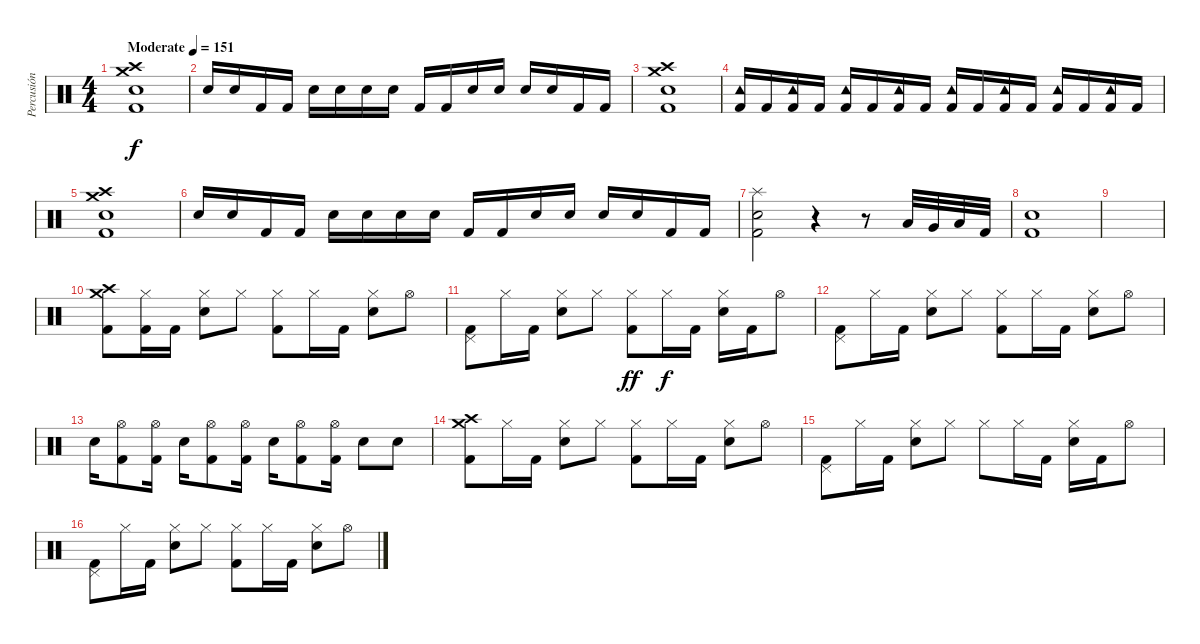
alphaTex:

\track ("Percusión" "Percusión") {instrument percussion}
\staff {score}
\articulation defaults
\ts (4 4)
\tempo (151 "Moderate")
\clef neutral
\ks c
("Crash high (hit)" "Crash medium (hit)" "Electric Snare (hit)" "Kick (hit) 2").1{dy f} |
"Electric Snare (hit)".16 "Electric Snare (hit)".16 "Kick (hit) 2".16 "Kick (hit) 2".16 "Electric Snare (hit)".16 "Electric Snare (hit)".16 "Electric Snare (hit)".16 "Electric Snare (hit)".16 "Kick (hit) 2".16 "Kick (hit) 2".16 "Electric Snare (hit)".16 "Electric Snare (hit)".16 "Electric Snare (hit)".16 "Electric Snare (hit)".16 "Kick (hit) 2".16 "Kick (hit) 2".16 |
("Crash high (hit)" "Crash medium (hit)" "Electric Snare (hit)" "Kick (hit) 2").1 |
("Tambourine (hit)" "Kick (hit) 2").16 "Kick (hit) 2".16 ("Tambourine (hit)" "Kick (hit) 2").16 "Kick (hit) 2".16 ("Tambourine (hit)" "Kick (hit) 2").16 "Kick (hit) 2".16 ("Tambourine (hit)" "Kick (hit) 2").16 "Kick (hit) 2".16 ("Tambourine (hit)" "Kick (hit) 2").16 "Kick (hit) 2".16 ("Tambourine (hit)" "Kick (hit) 2").16 "Kick (hit) 2".16 ("Tambourine (hit)" "Kick (hit) 2").16 "Kick (hit) 2".16 ("Tambourine (hit)" "Kick (hit) 2").16 "Kick (hit) 2".16 |
("Crash high (hit)" "Crash medium (hit)" "Electric Snare (hit)" "Kick (hit) 2").1 |
"Electric Snare (hit)".16 "Electric Snare (hit)".16 "Kick (hit) 2".16 "Kick (hit) 2".16 "Electric Snare (hit)".16 "Electric Snare (hit)".16 "Electric Snare (hit)".16 "Electric Snare (hit)".16 "Kick (hit) 2".16 "Kick (hit) 2".16 "Electric Snare (hit)".16 "Electric Snare (hit)".16 "Electric Snare (hit)".16 "Electric Snare (hit)".16 "Kick (hit) 2".16 "Kick (hit) 2".16 |
("Splash (hit)" "Electric Snare (hit)" "Kick (hit) 2").2 r.4 r.8 "Low Tom (hit)".32 "Very Low Tom (hit)".32 "Low Floor Tom (hit)".32 "Kick (hit) 2".32 |
("Electric Snare (hit)" "Kick (hit) 2").1 |
|
("Crash high (hit)" "Crash medium (hit)" "Kick (hit) 2").8 ("Hi-Hat (closed)" "Kick (hit) 2").16 "Kick (hit) 2".16 ("Hi-Hat (closed)" "Electric Snare (hit)").8 "Hi-Hat (closed)".8 ("Hi-Hat (closed)" "Kick (hit) 2").8 "Hi-Hat (closed)".16 "Kick (hit) 2".16 ("Hi-Hat (closed)" "Electric Snare (hit)").8 "Hi-Hat (open)".8 |
("Pedal Hi-Hat (hit)" "Kick (hit) 2").8 "Hi-Hat (closed)".16 "Kick (hit) 2".16 ("Hi-Hat (closed)" "Electric Snare (hit)").8 "Hi-Hat (closed)".8 ("Hi-Hat (closed)" "Kick (hit) 2").8{dy ff} "Hi-Hat (closed)".16{dy f} "Kick (hit) 2".16 ("Hi-Hat (closed)" "Electric Snare (hit)").16 "Kick (hit) 2".16 "Hi-Hat (open)".8 |
("Pedal Hi-Hat (hit)" "Kick (hit) 2").8 "Hi-Hat (closed)".16 "Kick (hit) 2".16 ("Hi-Hat (closed)" "Electric Snare (hit)").8 "Hi-Hat (closed)".8 ("Hi-Hat (closed)" "Kick (hit) 2").8 "Hi-Hat (closed)".16 "Kick (hit) 2".16 ("Hi-Hat (closed)" "Electric Snare (hit)").8 "Hi-Hat (open)".8 |
"Electric Snare (hit)".16 ("Hi-Hat (open)" "Kick (hit) 2").8 ("Hi-Hat (open)" "Kick (hit) 2").16 "Electric Snare (hit)".16 ("Hi-Hat (open)" "Kick (hit) 2").8 ("Hi-Hat (open)" "Kick (hit) 2").16 "Electric Snare (hit)".16 ("Hi-Hat (open)" "Kick (hit) 2").8 ("Hi-Hat (open)" "Kick (hit) 2").16 "Electric Snare (hit)".8 "Electric Snare (hit)".8 |
("Crash high (hit)" "Crash medium (hit)" "Kick (hit) 2").8 "Hi-Hat (closed)".16 "Kick (hit) 2".16 ("Hi-Hat (closed)" "Electric Snare (hit)").8 "Hi-Hat (closed)".8 ("Hi-Hat (closed)" "Kick (hit) 2").8 "Hi-Hat (closed)".16 "Kick (hit) 2".16 ("Hi-Hat (closed)" "Electric Snare (hit)").8 "Hi-Hat (open)".8 |
("Pedal Hi-Hat (hit)" "Kick (hit) 2").8 "Hi-Hat (closed)".16 "Kick (hit) 2".16 ("Hi-Hat (closed)" "Electric Snare (hit)").8 "Hi-Hat (closed)".8 "Hi-Hat (closed)".8 "Hi-Hat (closed)".16 "Kick (hit) 2".16 ("Hi-Hat (closed)" "Electric Snare (hit)").16 "Kick (hit) 2".16 "Hi-Hat (open)".8 |
("Pedal Hi-Hat (hit)" "Kick (hit) 2").8 "Hi-Hat (closed)".16 "Kick (hit) 2".16 ("Hi-Hat (closed)" "Electric Snare (hit)").8 "Hi-Hat (closed)".8 ("Hi-Hat (closed)" "Kick (hit) 2").8 "Hi-Hat (closed)".16 "Kick (hit) 2".16 ("Hi-Hat (closed)" "Electric Snare (hit)").8 "Hi-Hat (open)".8
